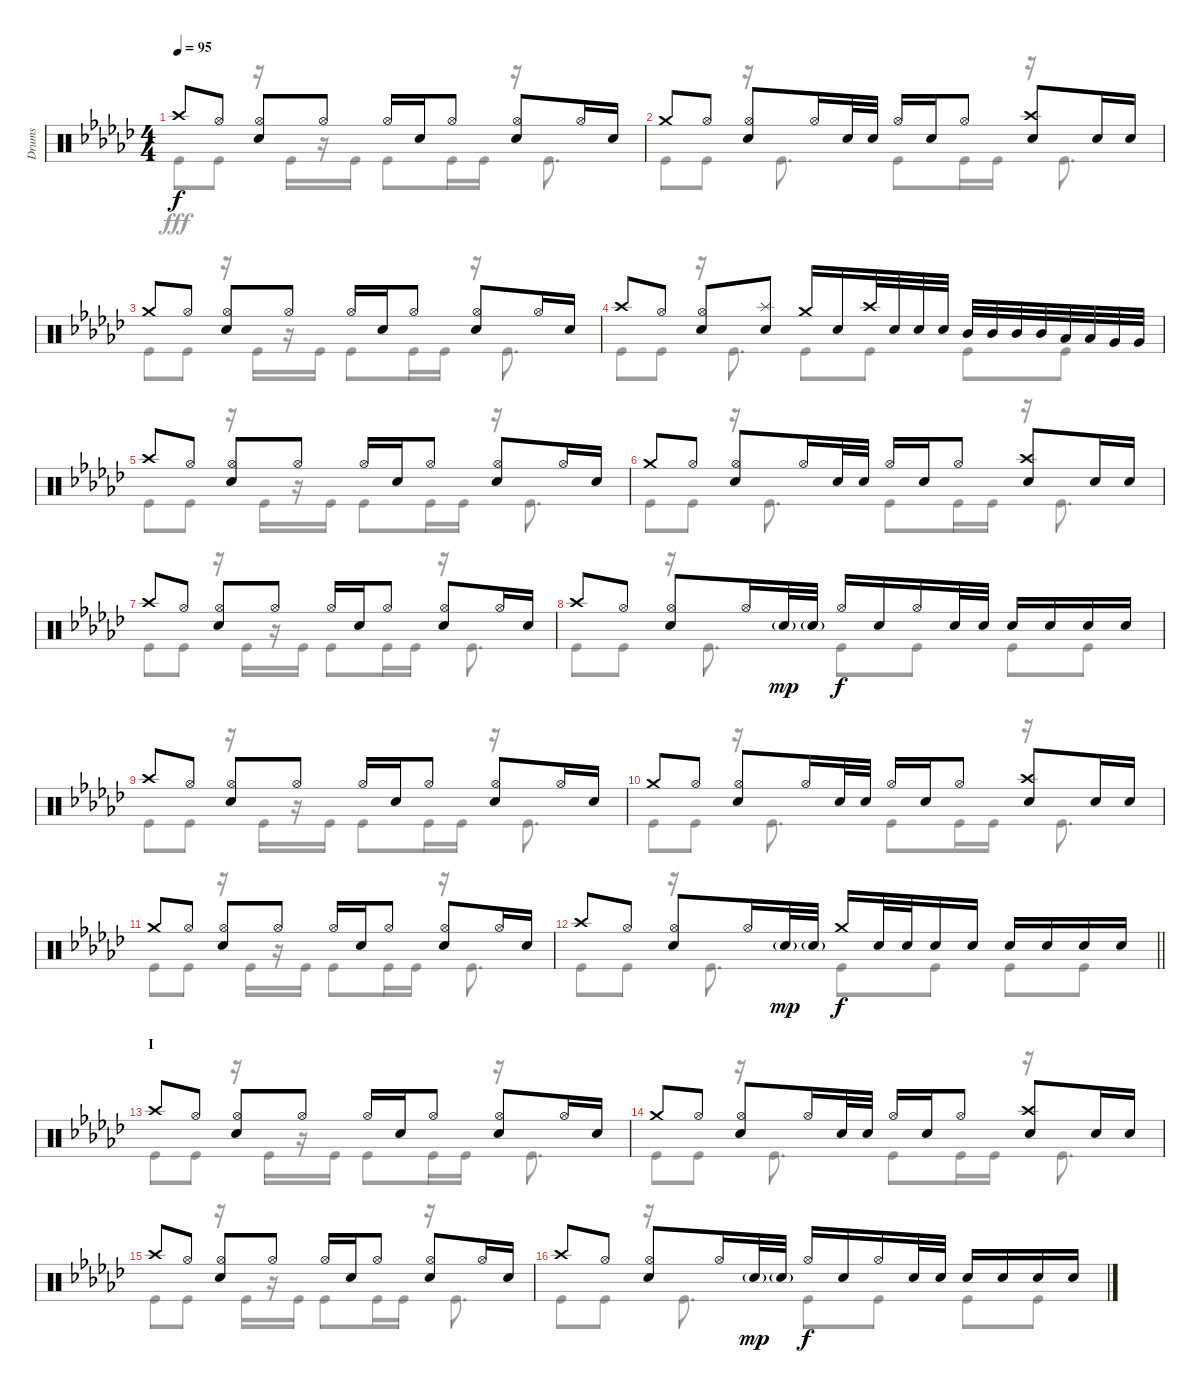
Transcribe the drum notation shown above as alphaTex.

\track ("Drums" "Drums") {instrument percussion}
\staff {score}
\articulation defaults
\voice
\ts (4 4)
\tempo 95
\clef neutral
\ks gb "Crash high (hit)".8{dy f} "Hi-Hat (open)".8
("Hi-Hat (open)" "Snare (hit) 2").8 "Hi-Hat (open)".8 "Hi-Hat (open)".16 "Snare (hit) 2".16 "Hi-Hat (open)".8 ("Hi-Hat (open)" "Snare (hit) 2").8 "Hi-Hat (open)".16 "Snare (hit) 2".16 |
"Crash medium (hit)".8 "Hi-Hat (open)".8 ("Hi-Hat (open)" "Snare (hit) 2").8 "Hi-Hat (open)".16 "Snare (hit) 2".32 "Snare (hit) 2".32 "Hi-Hat (open)".16 "Snare (hit) 2".16 "Hi-Hat (open)".8 ("Crash high (hit)" "Snare (hit) 2").8 "Snare (hit) 2".16 "Snare (hit) 2".16 |
"Crash medium (hit)".8 "Hi-Hat (open)".8 ("Hi-Hat (open)" "Snare (hit) 2").8 "Hi-Hat (open)".8 "Hi-Hat (open)".16 "Snare (hit) 2".16 "Hi-Hat (open)".8 ("Hi-Hat (open)" "Snare (hit) 2").8 "Hi-Hat (open)".16 "Snare (hit) 2".16 |
"Crash high (hit)".8 "Hi-Hat (open)".8 ("Hi-Hat (open)" "Snare (hit) 2").8 ("Splash (hit)" "Snare (hit) 2").8 "Crash medium (hit)".16 "Snare (hit) 2".16 "Crash high (hit)".32 "Snare (hit) 2".32 "Snare (hit) 2".32 "Snare (hit) 2".32 "Mid Tom (hit)".32 "Mid Tom (hit)".32 "Mid Tom (hit)".32 "Mid Tom (hit)".32 "Low Tom (hit)".32 "Low Tom (hit)".32 "Very Low Tom (hit)".32 "Very Low Tom (hit)".32 |
"Crash high (hit)".8 "Hi-Hat (open)".8 ("Hi-Hat (open)" "Snare (hit) 2").8 "Hi-Hat (open)".8 "Hi-Hat (open)".16 "Snare (hit) 2".16 "Hi-Hat (open)".8 ("Hi-Hat (open)" "Snare (hit) 2").8 "Hi-Hat (open)".16 "Snare (hit) 2".16 |
"Crash medium (hit)".8 "Hi-Hat (open)".8 ("Hi-Hat (open)" "Snare (hit) 2").8 "Hi-Hat (open)".16 "Snare (hit) 2".32 "Snare (hit) 2".32 "Hi-Hat (open)".16 "Snare (hit) 2".16 "Hi-Hat (open)".8 ("Crash high (hit)" "Snare (hit) 2").8 "Snare (hit) 2".16 "Snare (hit) 2".16 |
"Crash high (hit)".8 "Hi-Hat (open)".8 ("Hi-Hat (open)" "Snare (hit) 2").8 "Hi-Hat (open)".8 "Hi-Hat (open)".16 "Snare (hit) 2".16 "Hi-Hat (open)".8 ("Hi-Hat (open)" "Snare (hit) 2").8 "Hi-Hat (open)".16 "Snare (hit) 2".16 |
"Crash high (hit)".8 "Hi-Hat (open)".8 ("Hi-Hat (open)" "Snare (hit) 2").8 "Hi-Hat (open)".16 "Snare (hit) 2"{g}.32{dy mp} "Snare (hit) 2"{g}.32 "Hi-Hat (open)".16{dy f} "Snare (hit) 2".16 "Hi-Hat (open)".16 "Snare (hit) 2".32 "Snare (hit) 2".32 "Snare (hit) 2".16 "Snare (hit) 2".16 "Snare (hit) 2".16 "Snare (hit) 2".16 |
"Crash high (hit)".8 "Hi-Hat (open)".8 ("Hi-Hat (open)" "Snare (hit) 2").8 "Hi-Hat (open)".8 "Hi-Hat (open)".16 "Snare (hit) 2".16 "Hi-Hat (open)".8 ("Hi-Hat (open)" "Snare (hit) 2").8 "Hi-Hat (open)".16 "Snare (hit) 2".16 |
"Crash medium (hit)".8 "Hi-Hat (open)".8 ("Hi-Hat (open)" "Snare (hit) 2").8 "Hi-Hat (open)".16 "Snare (hit) 2".32 "Snare (hit) 2".32 "Hi-Hat (open)".16 "Snare (hit) 2".16 "Hi-Hat (open)".8 ("Crash high (hit)" "Snare (hit) 2").8 "Snare (hit) 2".16 "Snare (hit) 2".16 |
"Crash medium (hit)".8 "Hi-Hat (open)".8 ("Hi-Hat (open)" "Snare (hit) 2").8 "Hi-Hat (open)".8 "Hi-Hat (open)".16 "Snare (hit) 2".16 "Hi-Hat (open)".8 ("Hi-Hat (open)" "Snare (hit) 2").8 "Hi-Hat (open)".16 "Snare (hit) 2".16 |
\barLineRight lightlight "Crash high (hit)".8 "Hi-Hat (open)".8
("Hi-Hat (open)" "Snare (hit) 2").8 "Hi-Hat (open)".16 "Snare (hit) 2"{g}.32{dy mp} "Snare (hit) 2"{g}.32 "Crash medium (hit)".16{dy f} "Snare (hit) 2".32 "Snare (hit) 2".32 "Snare (hit) 2".16 "Snare (hit) 2".16 "Snare (hit) 2".16 "Snare (hit) 2".16 "Snare (hit) 2".16 "Snare (hit) 2".16 |
\section ("" "I")
"Crash high (hit)".8 "Hi-Hat (open)".8 ("Hi-Hat (open)" "Snare (hit) 2").8 "Hi-Hat (open)".8 "Hi-Hat (open)".16 "Snare (hit) 2".16 "Hi-Hat (open)".8 ("Hi-Hat (open)" "Snare (hit) 2").8 "Hi-Hat (open)".16 "Snare (hit) 2".16 |
"Crash medium (hit)".8 "Hi-Hat (open)".8 ("Hi-Hat (open)" "Snare (hit) 2").8 "Hi-Hat (open)".16 "Snare (hit) 2".32 "Snare (hit) 2".32 "Hi-Hat (open)".16 "Snare (hit) 2".16 "Hi-Hat (open)".8 ("Crash high (hit)" "Snare (hit) 2").8 "Snare (hit) 2".16 "Snare (hit) 2".16 |
"Crash high (hit)".8 "Hi-Hat (open)".8 ("Hi-Hat (open)" "Snare (hit) 2").8 "Hi-Hat (open)".8 "Hi-Hat (open)".16 "Snare (hit) 2".16 "Hi-Hat (open)".8 ("Hi-Hat (open)" "Snare (hit) 2").8 "Hi-Hat (open)".16 "Snare (hit) 2".16 |
"Crash high (hit)".8 "Hi-Hat (open)".8 ("Hi-Hat (open)" "Snare (hit) 2").8 "Hi-Hat (open)".16 "Snare (hit) 2"{g}.32{dy mp} "Snare (hit) 2"{g}.32 "Hi-Hat (open)".16{dy f} "Snare (hit) 2".16 "Hi-Hat (open)".16 "Snare (hit) 2".32 "Snare (hit) 2".32 "Snare (hit) 2".16 "Snare (hit) 2".16 "Snare (hit) 2".16 "Snare (hit) 2".16
\voice
\clef neutral
\ottava regular
\simile none
\ks gb "Kick (hit)".8{dy fff} "Kick (hit)".8
r.16 "Kick (hit)".16 r.16 "Kick (hit)".16 "Kick (hit)".8 "Kick (hit)".16 "Kick (hit)".16 r.16 "Kick (hit)".8{d} |
"Kick (hit)".8 "Kick (hit)".8 r.16 "Kick (hit)".8{d} "Kick (hit)".8 "Kick (hit)".16 "Kick (hit)".16 r.16 "Kick (hit)".8{d} |
"Kick (hit)".8 "Kick (hit)".8 r.16 "Kick (hit)".16 r.16 "Kick (hit)".16 "Kick (hit)".8 "Kick (hit)".16 "Kick (hit)".16 r.16 "Kick (hit)".8{d} |
"Kick (hit)".8 "Kick (hit)".8 r.16 "Kick (hit)".8{d} "Kick (hit)".8 "Kick (hit)".8 "Kick (hit)".8 "Kick (hit)".8 |
"Kick (hit)".8 "Kick (hit)".8 r.16 "Kick (hit)".16 r.16 "Kick (hit)".16 "Kick (hit)".8 "Kick (hit)".16 "Kick (hit)".16 r.16 "Kick (hit)".8{d} |
"Kick (hit)".8 "Kick (hit)".8 r.16 "Kick (hit)".8{d} "Kick (hit)".8 "Kick (hit)".16 "Kick (hit)".16 r.16 "Kick (hit)".8{d} |
"Kick (hit)".8 "Kick (hit)".8 r.16 "Kick (hit)".16 r.16 "Kick (hit)".16 "Kick (hit)".8 "Kick (hit)".16 "Kick (hit)".16 r.16 "Kick (hit)".8{d} |
"Kick (hit)".8 "Kick (hit)".8 r.16 "Kick (hit)".8{d} "Kick (hit)".8 "Kick (hit)".8 "Kick (hit)".8 "Kick (hit)".8 |
"Kick (hit)".8 "Kick (hit)".8 r.16 "Kick (hit)".16 r.16 "Kick (hit)".16 "Kick (hit)".8 "Kick (hit)".16 "Kick (hit)".16 r.16 "Kick (hit)".8{d} |
"Kick (hit)".8 "Kick (hit)".8 r.16 "Kick (hit)".8{d} "Kick (hit)".8 "Kick (hit)".16 "Kick (hit)".16 r.16 "Kick (hit)".8{d} |
"Kick (hit)".8 "Kick (hit)".8 r.16 "Kick (hit)".16 r.16 "Kick (hit)".16 "Kick (hit)".8 "Kick (hit)".16 "Kick (hit)".16 r.16 "Kick (hit)".8{d} |
\barLineRight lightlight "Kick (hit)".8 "Kick (hit)".8
r.16 "Kick (hit)".8{d} "Kick (hit)".8 "Kick (hit)".8 "Kick (hit)".8 "Kick (hit)".8 |
"Kick (hit)".8 "Kick (hit)".8 r.16 "Kick (hit)".16 r.16 "Kick (hit)".16 "Kick (hit)".8 "Kick (hit)".16 "Kick (hit)".16 r.16 "Kick (hit)".8{d} |
"Kick (hit)".8 "Kick (hit)".8 r.16 "Kick (hit)".8{d} "Kick (hit)".8 "Kick (hit)".16 "Kick (hit)".16 r.16 "Kick (hit)".8{d} |
"Kick (hit)".8 "Kick (hit)".8 r.16 "Kick (hit)".16 r.16 "Kick (hit)".16 "Kick (hit)".8 "Kick (hit)".16 "Kick (hit)".16 r.16 "Kick (hit)".8{d} |
"Kick (hit)".8 "Kick (hit)".8 r.16 "Kick (hit)".8{d} "Kick (hit)".8 "Kick (hit)".8 "Kick (hit)".8 "Kick (hit)".8
